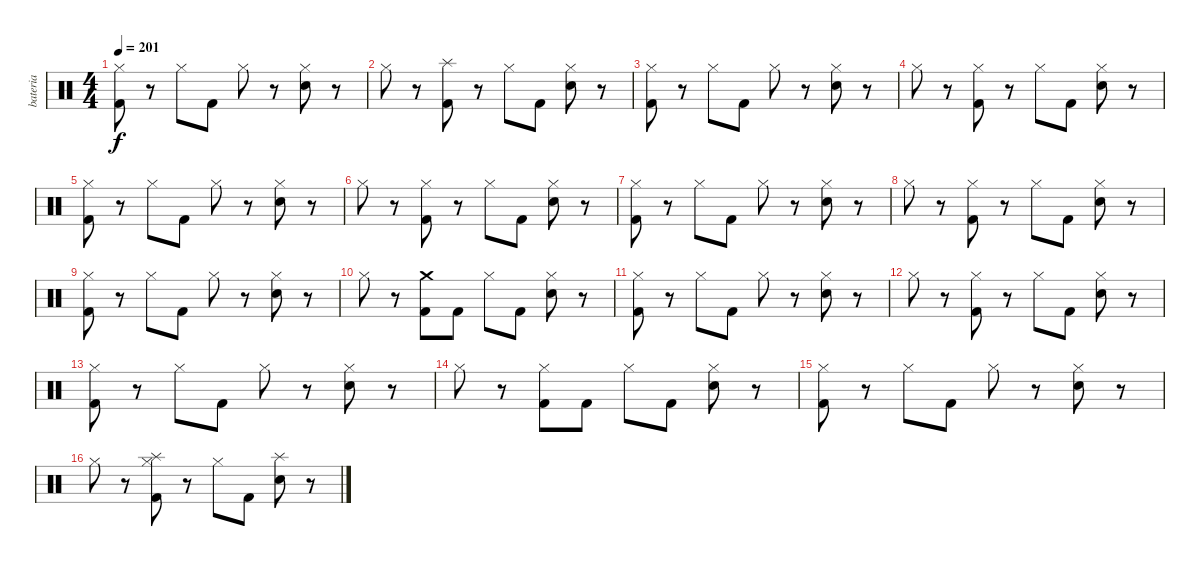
\track ("bateria" "bateria") {instrument percussion}
\staff {score}
\articulation defaults
\ts (4 4)
\tempo 201
\clef neutral
\ks c
("Hi-Hat (closed)" "Kick (hit) 2").8{dy f} r.8 "Hi-Hat (closed)".8 "Kick (hit) 2".8 "Hi-Hat (closed)".8 r.8 ("Hi-Hat (closed)" "Electric Snare (hit)").8 r.8 |
"Hi-Hat (closed)".8 r.8 ("Splash (hit)" "Kick (hit) 2").8 r.8 "Hi-Hat (closed)".8 "Kick (hit) 2".8 ("Hi-Hat (closed)" "Electric Snare (hit)").8 r.8 |
("Hi-Hat (closed)" "Kick (hit) 2").8 r.8 "Hi-Hat (closed)".8 "Kick (hit) 2".8 "Hi-Hat (closed)".8 r.8 ("Hi-Hat (closed)" "Electric Snare (hit)").8 r.8 |
"Hi-Hat (closed)".8 r.8 ("Hi-Hat (closed)" "Kick (hit) 2").8 r.8 "Hi-Hat (closed)".8 "Kick (hit) 2".8 ("Hi-Hat (closed)" "Electric Snare (hit)").8 r.8 |
("Hi-Hat (closed)" "Kick (hit) 2").8 r.8 "Hi-Hat (closed)".8 "Kick (hit) 2".8 "Hi-Hat (closed)".8 r.8 ("Hi-Hat (closed)" "Electric Snare (hit)").8 r.8 |
"Hi-Hat (closed)".8 r.8 ("Hi-Hat (closed)" "Kick (hit) 2").8 r.8 "Hi-Hat (closed)".8 "Kick (hit) 2".8 ("Hi-Hat (closed)" "Electric Snare (hit)").8 r.8 |
("Hi-Hat (closed)" "Kick (hit) 2").8 r.8 "Hi-Hat (closed)".8 "Kick (hit) 2".8 "Hi-Hat (closed)".8 r.8 ("Hi-Hat (closed)" "Electric Snare (hit)").8 r.8 |
"Hi-Hat (closed)".8 r.8 ("Hi-Hat (closed)" "Kick (hit) 2").8 r.8 "Hi-Hat (closed)".8 "Kick (hit) 2".8 ("Hi-Hat (closed)" "Electric Snare (hit)").8 r.8 |
("Hi-Hat (closed)" "Kick (hit) 2").8 r.8 "Hi-Hat (closed)".8 "Kick (hit) 2".8 "Hi-Hat (closed)".8 r.8 ("Hi-Hat (closed)" "Electric Snare (hit)").8 r.8 |
"Hi-Hat (closed)".8 r.8 ("Crash medium (hit)" "Kick (hit) 2").8 "Kick (hit) 2".8 "Hi-Hat (closed)".8 "Kick (hit) 2".8 ("Hi-Hat (closed)" "Electric Snare (hit)").8 r.8 |
("Hi-Hat (closed)" "Kick (hit) 2").8 r.8 "Hi-Hat (closed)".8 "Kick (hit) 2".8 "Hi-Hat (closed)".8 r.8 ("Hi-Hat (closed)" "Electric Snare (hit)").8 r.8 |
"Hi-Hat (closed)".8 r.8 ("Hi-Hat (closed)" "Kick (hit) 2").8 r.8 "Hi-Hat (closed)".8 "Kick (hit) 2".8 ("Hi-Hat (closed)" "Electric Snare (hit)").8 r.8 |
("Hi-Hat (closed)" "Kick (hit) 2").8 r.8 "Hi-Hat (closed)".8 "Kick (hit) 2".8 "Hi-Hat (closed)".8 r.8 ("Hi-Hat (closed)" "Electric Snare (hit)").8 r.8 |
"Hi-Hat (closed)".8 r.8 ("Hi-Hat (closed)" "Kick (hit) 2").8 "Kick (hit) 2".8 "Hi-Hat (closed)".8 "Kick (hit) 2".8 ("Hi-Hat (closed)" "Electric Snare (hit)").8 r.8 |
("Hi-Hat (closed)" "Kick (hit) 2").8 r.8 "Hi-Hat (closed)".8 "Kick (hit) 2".8 "Hi-Hat (closed)".8 r.8 ("Hi-Hat (closed)" "Electric Snare (hit)").8 r.8 |
"Hi-Hat (closed)".8 r.8 ("Hi-Hat (closed)" "Splash (hit)" "Kick (hit) 2").8 r.8 "Hi-Hat (closed)".8 "Kick (hit) 2".8 ("Snare (hit) 2" "Splash (hit)").8 r.8
